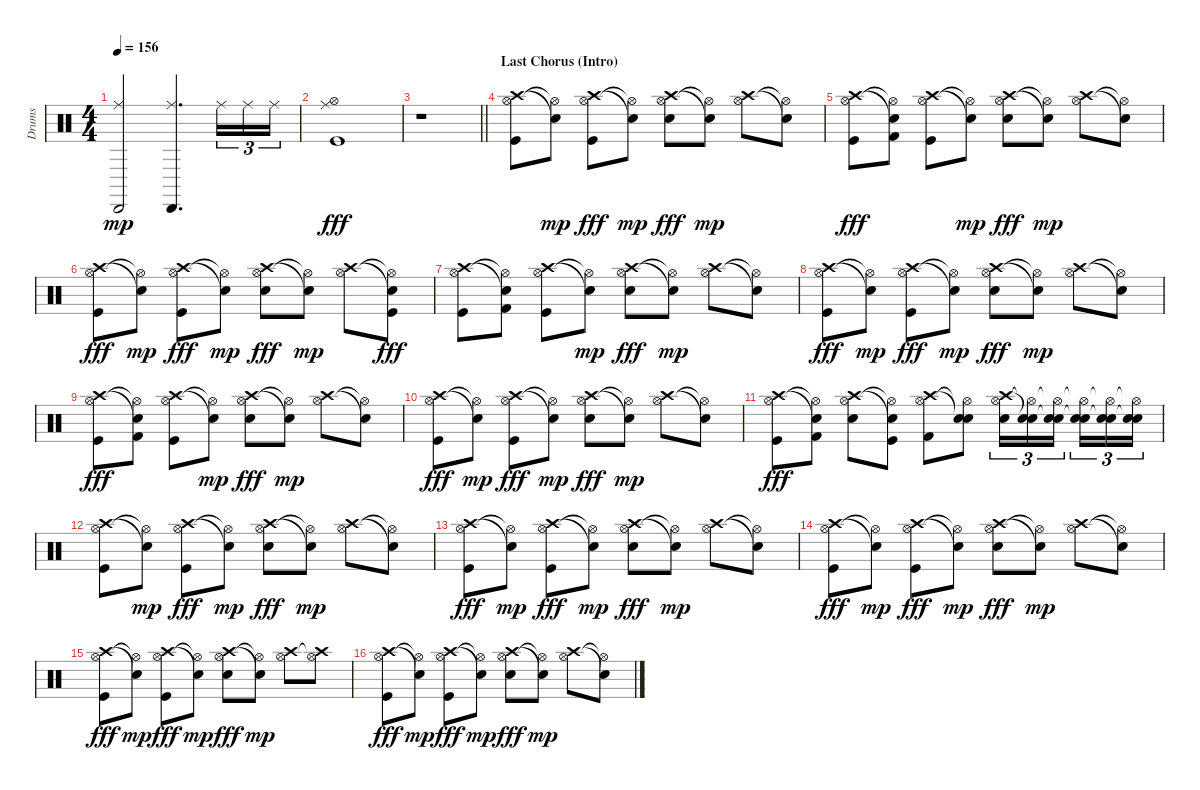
\track ("Drums" "Drums") {instrument percussion}
\staff {score}
\articulation defaults
\ts (4 4)
\tempo 156
\clef neutral
\ks c
("Ride (middle)" "Cabasa (hit)").2{dy mp} ("Ride (middle)" "Cabasa (hit)").4{d} "Ride (middle)".16{tu (3 2)} "Ride (middle)".16{tu (3 2)} "Ride (middle)".16{tu (3 2)} |
("Ride (middle)" "Hi-Hat (open)" "Kick (hit)").1{dy fff} |
\barLineRight lightlight
r.1 |
\section ("" "Last Chorus (Intro)")
("Crash high (hit)" "Hi-Hat (open)" "Kick (hit)").8 ("Snare (hit)"{t} "Hi-Hat (open)"{t}).8{dy mp} ("Crash high (hit)" "Hi-Hat (open)" "Kick (hit)").8{dy fff} ("Snare (hit)"{t} "Hi-Hat (open)"{t}).8{dy mp} ("Crash high (hit)" "Hi-Hat (open)" "Snare (hit) 2").8{dy fff} ("Snare (hit)"{t} "Hi-Hat (open)"{t}).8{dy mp} ("Crash high (hit)" "Hi-Hat (open)").8 ("Snare (hit)"{t} "Hi-Hat (open)"{t}).8 |
("Crash high (hit)" "Hi-Hat (open)" "Kick (hit)").8{dy fff} ("Snare (hit)"{t} "Hi-Hat (open)"{t} "Kick (hit) 2").8 ("Crash high (hit)" "Hi-Hat (open)" "Kick (hit)").8 ("Snare (hit)"{t} "Hi-Hat (open)"{t}).8{dy mp} ("Crash high (hit)" "Hi-Hat (open)" "Snare (hit) 2").8{dy fff} ("Snare (hit)"{t} "Hi-Hat (open)"{t}).8{dy mp} ("Crash high (hit)" "Hi-Hat (open)").8 ("Snare (hit)"{t} "Hi-Hat (open)"{t}).8 |
("Crash high (hit)" "Hi-Hat (open)" "Kick (hit)").8{dy fff} ("Snare (hit)"{t} "Hi-Hat (open)"{t}).8{dy mp} ("Crash high (hit)" "Hi-Hat (open)" "Kick (hit)").8{dy fff} ("Snare (hit)"{t} "Hi-Hat (open)"{t}).8{dy mp} ("Crash high (hit)" "Hi-Hat (open)" "Snare (hit) 2").8{dy fff} ("Snare (hit)"{t} "Hi-Hat (open)"{t}).8{dy mp} ("Crash high (hit)" "Hi-Hat (open)").8 ("Snare (hit)"{t} "Hi-Hat (open)"{t} "Kick (hit)").8{dy fff} |
("Crash high (hit)" "Hi-Hat (open)" "Kick (hit)").8 ("Snare (hit)"{t} "Hi-Hat (open)"{t} "Kick (hit) 2").8 ("Crash high (hit)" "Hi-Hat (open)" "Kick (hit)").8 ("Snare (hit)"{t} "Hi-Hat (open)"{t}).8{dy mp} ("Crash high (hit)" "Hi-Hat (open)" "Snare (hit) 2").8{dy fff} ("Snare (hit)"{t} "Hi-Hat (open)"{t}).8{dy mp} ("Crash high (hit)" "Hi-Hat (open)").8 ("Snare (hit)"{t} "Hi-Hat (open)"{t}).8 |
("Crash high (hit)" "Hi-Hat (open)" "Kick (hit)").8{dy fff} ("Snare (hit)"{t} "Hi-Hat (open)"{t}).8{dy mp} ("Crash high (hit)" "Hi-Hat (open)" "Kick (hit)").8{dy fff} ("Snare (hit)"{t} "Hi-Hat (open)"{t}).8{dy mp} ("Crash high (hit)" "Hi-Hat (open)" "Snare (hit) 2").8{dy fff} ("Snare (hit)"{t} "Hi-Hat (open)"{t}).8{dy mp} ("Crash high (hit)" "Hi-Hat (open)").8 ("Snare (hit)"{t} "Hi-Hat (open)"{t}).8 |
("Crash high (hit)" "Hi-Hat (open)" "Kick (hit)").8{dy fff} ("Snare (hit)"{t} "Hi-Hat (open)"{t} "Kick (hit) 2").8 ("Crash high (hit)" "Hi-Hat (open)" "Kick (hit)").8 ("Snare (hit)"{t} "Hi-Hat (open)"{t}).8{dy mp} ("Crash high (hit)" "Hi-Hat (open)" "Snare (hit) 2").8{dy fff} ("Snare (hit)"{t} "Hi-Hat (open)"{t}).8{dy mp} ("Crash high (hit)" "Hi-Hat (open)").8 ("Snare (hit)"{t} "Hi-Hat (open)"{t}).8 |
("Crash high (hit)" "Hi-Hat (open)" "Kick (hit)").8{dy fff} ("Snare (hit)"{t} "Hi-Hat (open)"{t}).8{dy mp} ("Crash high (hit)" "Hi-Hat (open)" "Kick (hit)").8{dy fff} ("Snare (hit)"{t} "Hi-Hat (open)"{t}).8{dy mp} ("Crash high (hit)" "Hi-Hat (open)" "Snare (hit) 2").8{dy fff} ("Snare (hit)"{t} "Hi-Hat (open)"{t}).8{dy mp} ("Crash high (hit)" "Hi-Hat (open)").8 ("Snare (hit)"{t} "Hi-Hat (open)"{t}).8 |
("Crash high (hit)" "Hi-Hat (open)" "Kick (hit)").8{dy fff} ("Snare (hit)"{t} "Hi-Hat (open)"{t} "Kick (hit) 2").8 ("Crash high (hit)" "Hi-Hat (open)" "Snare (hit) 2").8 ("Snare (hit)"{t} "Hi-Hat (open)"{t} "Kick (hit)").8 ("Crash high (hit)" "Hi-Hat (open)" "Kick (hit) 2").8 ("Snare (hit)"{t} "Hi-Hat (open)"{t} "Snare (hit) 2").8 ("Crash high (hit)" "Hi-Hat (open)" "Snare (hit) 2").16{tu (3 2)} ("Snare (hit)"{t} "Hi-Hat (open)"{t} "Snare (hit) 2").16{tu (3 2)} ("Snare (hit)"{t} "Hi-Hat (open)"{t} "Snare (hit) 2").16{tu (3 2) beam splitsecondary} ("Snare (hit)"{t} "Hi-Hat (open)"{t} "Snare (hit) 2").16{tu (3 2)} ("Snare (hit)"{t} "Hi-Hat (open)"{t} "Snare (hit) 2").16{tu (3 2)} ("Snare (hit)"{t} "Hi-Hat (open)"{t} "Snare (hit) 2").16{tu (3 2)} |
("Crash high (hit)" "Hi-Hat (open)" "Kick (hit)").8 ("Snare (hit)"{t} "Hi-Hat (open)"{t}).8{dy mp} ("Crash high (hit)" "Hi-Hat (open)" "Kick (hit)").8{dy fff} ("Snare (hit)"{t} "Hi-Hat (open)"{t}).8{dy mp} ("Crash high (hit)" "Hi-Hat (open)" "Snare (hit) 2").8{dy fff} ("Snare (hit)"{t} "Hi-Hat (open)"{t}).8{dy mp} ("Crash high (hit)" "Hi-Hat (open)").8 ("Snare (hit)"{t} "Hi-Hat (open)"{t}).8 |
("Crash high (hit)" "Hi-Hat (open)" "Kick (hit)").8{dy fff} ("Snare (hit)"{t} "Hi-Hat (open)"{t}).8{dy mp} ("Crash high (hit)" "Hi-Hat (open)" "Kick (hit)").8{dy fff} ("Snare (hit)"{t} "Hi-Hat (open)"{t}).8{dy mp} ("Crash high (hit)" "Hi-Hat (open)" "Snare (hit) 2").8{dy fff} ("Snare (hit)"{t} "Hi-Hat (open)"{t}).8{dy mp} ("Crash high (hit)" "Hi-Hat (open)").8 ("Snare (hit)"{t} "Hi-Hat (open)"{t}).8 |
("Crash high (hit)" "Hi-Hat (open)" "Kick (hit)").8{dy fff} ("Snare (hit)"{t} "Hi-Hat (open)"{t}).8{dy mp} ("Crash high (hit)" "Hi-Hat (open)" "Kick (hit)").8{dy fff} ("Snare (hit)"{t} "Hi-Hat (open)"{t}).8{dy mp} ("Crash high (hit)" "Hi-Hat (open)" "Snare (hit) 2").8{dy fff} ("Snare (hit)"{t} "Hi-Hat (open)"{t}).8{dy mp} ("Crash high (hit)" "Hi-Hat (open)").8 ("Snare (hit)"{t} "Hi-Hat (open)"{t}).8 |
("Crash high (hit)" "Hi-Hat (open)" "Kick (hit)").8{dy fff} ("Snare (hit)"{t} "Hi-Hat (open)"{t}).8{dy mp} ("Crash high (hit)" "Hi-Hat (open)" "Kick (hit)").8{dy fff} ("Snare (hit)"{t} "Hi-Hat (open)"{t}).8{dy mp} ("Crash high (hit)" "Hi-Hat (open)" "Snare (hit) 2").8{dy fff} ("Snare (hit)"{t} "Hi-Hat (open)"{t}).8{dy mp} ("Crash high (hit)" "Hi-Hat (open)").8 ("Crash high (hit)" "Hi-Hat (open)"{t}).8 |
("Crash high (hit)" "Hi-Hat (open)" "Kick (hit)").8{dy fff} ("Snare (hit)"{t} "Hi-Hat (open)"{t}).8{dy mp} ("Crash high (hit)" "Hi-Hat (open)" "Kick (hit)").8{dy fff} ("Snare (hit)"{t} "Hi-Hat (open)"{t}).8{dy mp} ("Crash high (hit)" "Hi-Hat (open)" "Snare (hit) 2").8{dy fff} ("Snare (hit)"{t} "Hi-Hat (open)"{t}).8{dy mp} ("Crash high (hit)" "Hi-Hat (open)").8 ("Snare (hit)"{t} "Hi-Hat (open)"{t}).8
